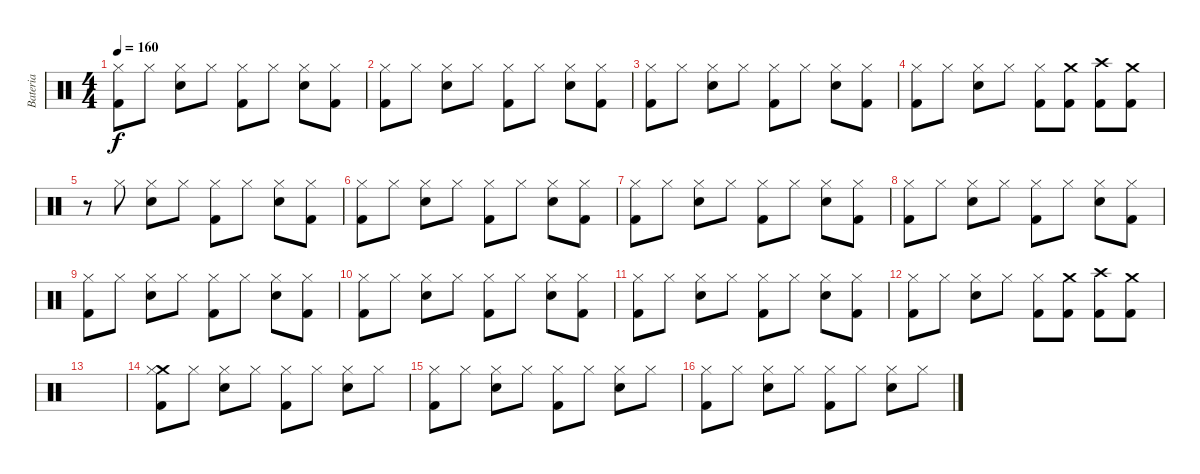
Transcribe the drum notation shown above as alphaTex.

\track ("Bateria" "Bateria") {instrument percussion}
\staff {score}
\articulation defaults
\ts (4 4)
\tempo 160
\clef neutral
\ks c
("Hi-Hat (closed)" "Kick (hit) 2").8{dy f} "Hi-Hat (closed)".8 ("Hi-Hat (closed)" "Electric Snare (hit)").8 "Hi-Hat (closed)".8 ("Hi-Hat (closed)" "Kick (hit) 2").8 "Hi-Hat (closed)".8 ("Hi-Hat (closed)" "Electric Snare (hit)").8 ("Hi-Hat (closed)" "Kick (hit) 2").8 |
("Hi-Hat (closed)" "Kick (hit) 2").8 "Hi-Hat (closed)".8 ("Hi-Hat (closed)" "Electric Snare (hit)").8 "Hi-Hat (closed)".8 ("Hi-Hat (closed)" "Kick (hit) 2").8 "Hi-Hat (closed)".8 ("Hi-Hat (closed)" "Electric Snare (hit)").8 ("Hi-Hat (closed)" "Kick (hit) 2").8 |
("Hi-Hat (closed)" "Kick (hit) 2").8 "Hi-Hat (closed)".8 ("Hi-Hat (closed)" "Electric Snare (hit)").8 "Hi-Hat (closed)".8 ("Hi-Hat (closed)" "Kick (hit) 2").8 "Hi-Hat (closed)".8 ("Hi-Hat (closed)" "Electric Snare (hit)").8 ("Hi-Hat (closed)" "Kick (hit) 2").8 |
("Hi-Hat (closed)" "Kick (hit) 2").8 "Hi-Hat (closed)".8 ("Hi-Hat (closed)" "Electric Snare (hit)").8 "Hi-Hat (closed)".8 ("Hi-Hat (closed)" "Kick (hit) 2").8 ("Crash medium (hit)" "Kick (hit) 2").8 ("Crash high (hit)" "Kick (hit) 2").8 ("Crash medium (hit)" "Kick (hit) 2").8 |
r.8 "Hi-Hat (closed)".8 ("Hi-Hat (closed)" "Electric Snare (hit)").8 "Hi-Hat (closed)".8 ("Hi-Hat (closed)" "Kick (hit) 2").8 "Hi-Hat (closed)".8 ("Hi-Hat (closed)" "Electric Snare (hit)").8 ("Hi-Hat (closed)" "Kick (hit) 2").8 |
("Hi-Hat (closed)" "Kick (hit) 2").8 "Hi-Hat (closed)".8 ("Hi-Hat (closed)" "Electric Snare (hit)").8 "Hi-Hat (closed)".8 ("Hi-Hat (closed)" "Kick (hit) 2").8 "Hi-Hat (closed)".8 ("Hi-Hat (closed)" "Electric Snare (hit)").8 ("Hi-Hat (closed)" "Kick (hit) 2").8 |
("Hi-Hat (closed)" "Kick (hit) 2").8 "Hi-Hat (closed)".8 ("Hi-Hat (closed)" "Electric Snare (hit)").8 "Hi-Hat (closed)".8 ("Hi-Hat (closed)" "Kick (hit) 2").8 "Hi-Hat (closed)".8 ("Hi-Hat (closed)" "Electric Snare (hit)").8 ("Hi-Hat (closed)" "Kick (hit) 2").8 |
("Hi-Hat (closed)" "Kick (hit) 2").8 "Hi-Hat (closed)".8 ("Hi-Hat (closed)" "Electric Snare (hit)").8 "Hi-Hat (closed)".8 ("Hi-Hat (closed)" "Kick (hit) 2").8 "Hi-Hat (closed)".8 ("Hi-Hat (closed)" "Electric Snare (hit)").8 ("Hi-Hat (closed)" "Kick (hit) 2").8 |
("Hi-Hat (closed)" "Kick (hit) 2").8 "Hi-Hat (closed)".8 ("Hi-Hat (closed)" "Electric Snare (hit)").8 "Hi-Hat (closed)".8 ("Hi-Hat (closed)" "Kick (hit) 2").8 "Hi-Hat (closed)".8 ("Hi-Hat (closed)" "Electric Snare (hit)").8 ("Hi-Hat (closed)" "Kick (hit) 2").8 |
("Hi-Hat (closed)" "Kick (hit) 2").8 "Hi-Hat (closed)".8 ("Hi-Hat (closed)" "Electric Snare (hit)").8 "Hi-Hat (closed)".8 ("Hi-Hat (closed)" "Kick (hit) 2").8 "Hi-Hat (closed)".8 ("Hi-Hat (closed)" "Electric Snare (hit)").8 ("Hi-Hat (closed)" "Kick (hit) 2").8 |
("Hi-Hat (closed)" "Kick (hit) 2").8 "Hi-Hat (closed)".8 ("Hi-Hat (closed)" "Electric Snare (hit)").8 "Hi-Hat (closed)".8 ("Hi-Hat (closed)" "Kick (hit) 2").8 "Hi-Hat (closed)".8 ("Hi-Hat (closed)" "Electric Snare (hit)").8 ("Hi-Hat (closed)" "Kick (hit) 2").8 |
("Hi-Hat (closed)" "Kick (hit) 2").8 "Hi-Hat (closed)".8 ("Hi-Hat (closed)" "Electric Snare (hit)").8 "Hi-Hat (closed)".8 ("Hi-Hat (closed)" "Kick (hit) 2").8 ("Crash medium (hit)" "Kick (hit) 2").8 ("Crash high (hit)" "Kick (hit) 2").8 ("Crash medium (hit)" "Kick (hit) 2").8 |
|
("Crash medium (hit)" "Hi-Hat (closed)" "Kick (hit) 2").8 "Hi-Hat (closed)".8 ("Hi-Hat (closed)" "Electric Snare (hit)").8 "Hi-Hat (closed)".8 ("Hi-Hat (closed)" "Kick (hit) 2").8 "Hi-Hat (closed)".8 ("Hi-Hat (closed)" "Electric Snare (hit)").8 "Hi-Hat (closed)".8 |
("Hi-Hat (closed)" "Kick (hit) 2").8 "Hi-Hat (closed)".8 ("Hi-Hat (closed)" "Electric Snare (hit)").8 "Hi-Hat (closed)".8 ("Hi-Hat (closed)" "Kick (hit) 2").8 "Hi-Hat (closed)".8 ("Hi-Hat (closed)" "Electric Snare (hit)").8 "Hi-Hat (closed)".8 |
("Hi-Hat (closed)" "Kick (hit) 2").8 "Hi-Hat (closed)".8 ("Hi-Hat (closed)" "Electric Snare (hit)").8 "Hi-Hat (closed)".8 ("Hi-Hat (closed)" "Kick (hit) 2").8 "Hi-Hat (closed)".8 ("Hi-Hat (closed)" "Electric Snare (hit)").8 "Hi-Hat (closed)".8
